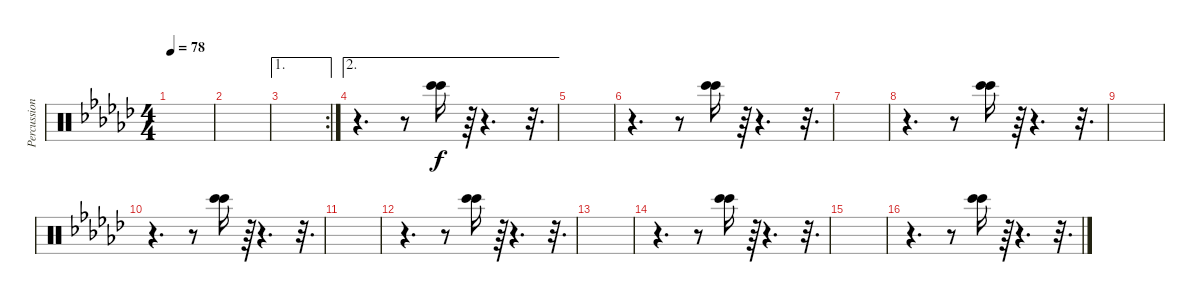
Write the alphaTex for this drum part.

\track ("Percussions" "Percussion") {instrument percussion}
\staff {score}
\articulation defaults
\ts (4 4)
\tempo 78
\clef neutral
\ks gb
|
|
\ae 1
\rc 2
|
\ae 2
r.4{d} r.8 ("Bongo High (hit)" "Bongo High (hit)").16{bd 480} r.64 r.4{d} r.32{d} |
|
r.4{d} r.8 ("Bongo High (hit)" "Bongo High (hit)").16{bd 480} r.64 r.4{d} r.32{d} |
|
r.4{d} r.8 ("Bongo High (hit)" "Bongo High (hit)").16{bd 480} r.64 r.4{d} r.32{d} |
|
r.4{d} r.8 ("Bongo High (hit)" "Bongo High (hit)").16{bd 480} r.64 r.4{d} r.32{d} |
|
r.4{d} r.8 ("Bongo High (hit)" "Bongo High (hit)").16{bd 480} r.64 r.4{d} r.32{d} |
|
r.4{d} r.8 ("Bongo High (hit)" "Bongo High (hit)").16{bd 480} r.64 r.4{d} r.32{d} |
|
r.4{d} r.8 ("Bongo High (hit)" "Bongo High (hit)").16{bd 480} r.64 r.4{d} r.32{d}
